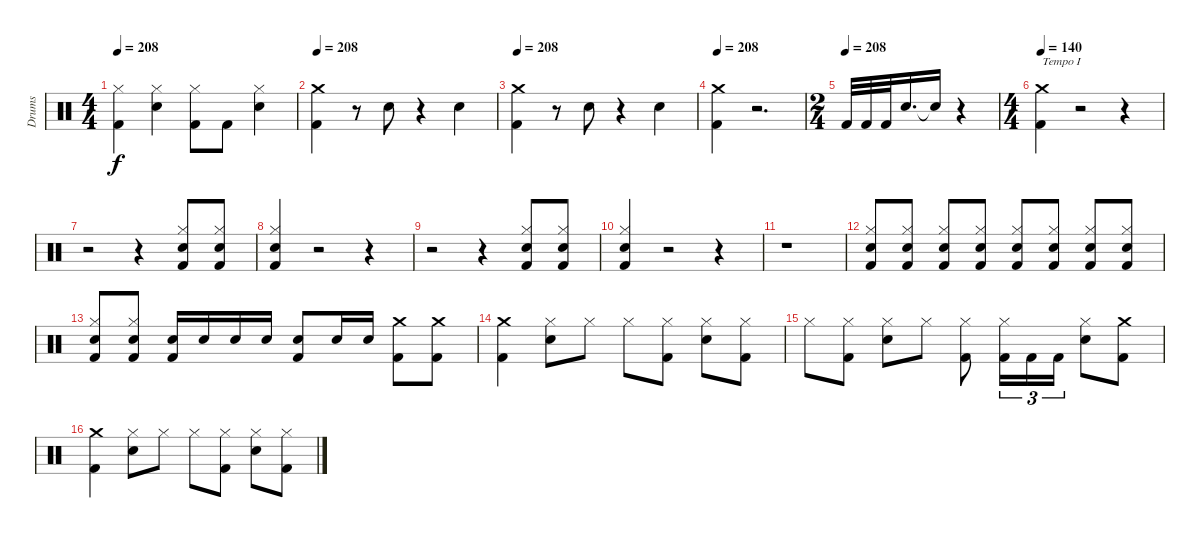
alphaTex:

\track ("Drums" "Drums") {instrument percussion}
\staff {score}
\articulation defaults
\ts (4 4)
\tempo 208
\clef neutral
\ks c
("Kick (hit) 2" "Hi-Hat (closed)").4{dy f} ("Snare (hit) 2" "Hi-Hat (closed)").4 ("Kick (hit) 2" "Hi-Hat (closed)").8 "Kick (hit) 2".8 ("Snare (hit) 2" "Hi-Hat (closed)").4 |
\tempo 208
("Kick (hit) 2" "Crash medium (hit)").4 r.8 "Snare (hit) 2".8 r.4 "Snare (hit) 2".4 |
\tempo 208
("Kick (hit) 2" "Crash medium (hit)").4 r.8 "Snare (hit) 2".8 r.4 "Snare (hit) 2".4 |
\tempo 208
("Kick (hit) 2" "Crash medium (hit)").4 r.2{d} |
\ts (2 4)
\tempo (208)
"Kick (hit) 2".32 "Kick (hit) 2".32 "Kick (hit) 2".32 "Snare (hit) 2".16{d} "Snare (hit)"{t}.16 r.4 |
\ts (4 4)
\tempo 140
("Kick (hit) 2" "Crash medium (hit)").4{txt "Tempo I"} r.2 r.4 |
r.2 r.4 ("Kick (hit) 2" "Snare (hit) 2" "Hi-Hat (closed)").8 ("Hi-Hat (closed)" "Snare (hit) 2" "Kick (hit) 2").8 |
("Kick (hit) 2" "Snare (hit) 2" "Hi-Hat (closed)").4 r.2 r.4 |
r.2 r.4 ("Kick (hit) 2" "Snare (hit) 2" "Hi-Hat (closed)").8 ("Hi-Hat (closed)" "Snare (hit) 2" "Kick (hit) 2").8 |
("Kick (hit) 2" "Snare (hit) 2" "Hi-Hat (closed)").4 r.2 r.4 |
r.1 |
("Snare (hit) 2" "Hi-Hat (closed)" "Kick (hit) 2").8 ("Hi-Hat (closed)" "Snare (hit) 2" "Kick (hit) 2").8 ("Snare (hit) 2" "Hi-Hat (closed)" "Kick (hit) 2").8 ("Hi-Hat (closed)" "Snare (hit) 2" "Kick (hit) 2").8 ("Snare (hit) 2" "Hi-Hat (closed)" "Kick (hit) 2").8 ("Hi-Hat (closed)" "Snare (hit) 2" "Kick (hit) 2").8 ("Snare (hit) 2" "Hi-Hat (closed)" "Kick (hit) 2").8 ("Hi-Hat (closed)" "Snare (hit) 2" "Kick (hit) 2").8 |
("Snare (hit) 2" "Hi-Hat (closed)" "Kick (hit) 2").8 ("Hi-Hat (closed)" "Snare (hit) 2" "Kick (hit) 2").8 ("Kick (hit) 2" "Snare (hit) 2").16 "Snare (hit) 2".16 "Snare (hit) 2".16 "Snare (hit) 2".16 ("Kick (hit) 2" "Snare (hit) 2").8 "Snare (hit) 2".16 "Snare (hit) 2".16 ("Crash medium (hit)" "Kick (hit) 2").8 ("Crash medium (hit)" "Kick (hit) 2").8 |
("Kick (hit) 2" "Crash medium (hit)").4 ("Snare (hit) 2" "Hi-Hat (closed)").8 "Hi-Hat (closed)".8 "Hi-Hat (closed)".8 ("Kick (hit) 2" "Hi-Hat (closed)").8 ("Snare (hit) 2" "Hi-Hat (closed)").8 ("Kick (hit) 2" "Hi-Hat (closed)").8 |
"Hi-Hat (closed)".8 ("Kick (hit) 2" "Hi-Hat (closed)").8 ("Snare (hit) 2" "Hi-Hat (closed)").8 "Hi-Hat (closed)".8 ("Kick (hit) 2" "Hi-Hat (closed)").8 ("Kick (hit) 2" "Hi-Hat (closed)").16{tu (3 2)} "Kick (hit) 2".16{tu (3 2)} "Kick (hit) 2".16{tu (3 2)} ("Snare (hit) 2" "Hi-Hat (closed)").8 ("Kick (hit) 2" "Crash medium (hit)").8 |
("Kick (hit) 2" "Crash medium (hit)").4 ("Snare (hit) 2" "Hi-Hat (closed)").8 "Hi-Hat (closed)".8 "Hi-Hat (closed)".8 ("Kick (hit) 2" "Hi-Hat (closed)").8 ("Snare (hit) 2" "Hi-Hat (closed)").8 ("Kick (hit) 2" "Hi-Hat (closed)").8
